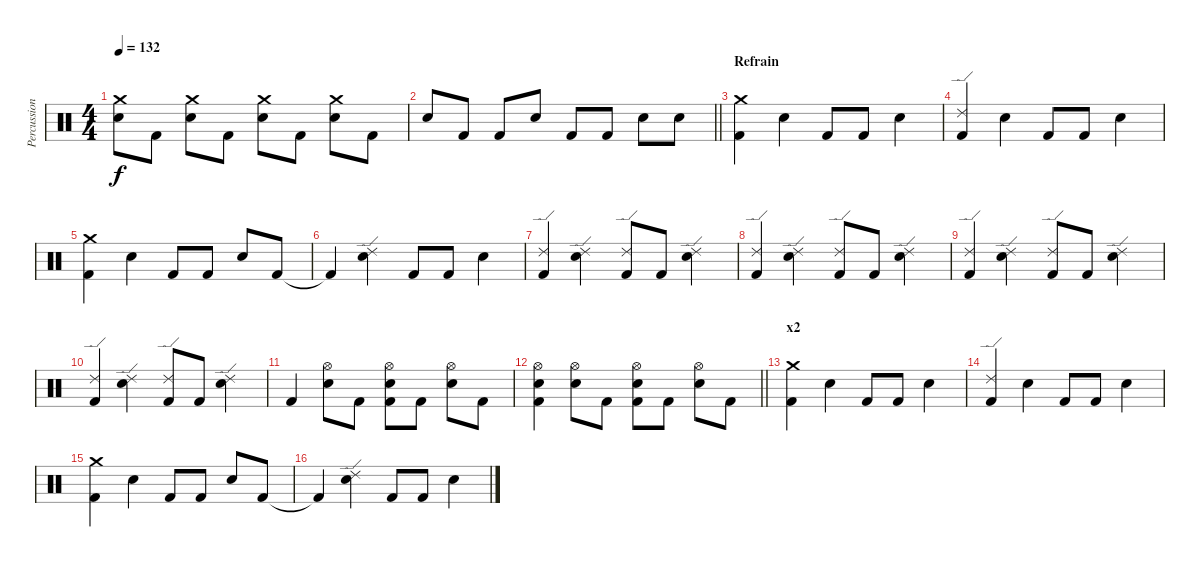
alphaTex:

\track ("Percussions" "Percussion") {instrument percussion}
\staff {score}
\articulation defaults
\ts (4 4)
\tempo 132
\clef neutral
\ks c
("Electric Snare (hit)" "Crash medium (hit)").8{dy f} "Kick (hit) 2".8 ("Electric Snare (hit)" "Crash medium (hit)").8 "Kick (hit) 2".8 ("Electric Snare (hit)" "Crash medium (hit)").8 "Kick (hit) 2".8 ("Electric Snare (hit)" "Crash medium (hit)").8 "Kick (hit) 2".8 |
\barLineRight lightlight "Electric Snare (hit)".8 "Kick (hit) 2".8 "Kick (hit) 2".8 "Electric Snare (hit)".8 "Kick (hit) 2".8 "Kick (hit) 2".8 "Electric Snare (hit)".8 "Electric Snare (hit)".8
|
\section ("" "Refrain")
("Kick (hit) 2" "Crash medium (hit)").4 "Electric Snare (hit)".4 "Kick (hit) 2".8 "Kick (hit) 2".8 "Electric Snare (hit)".4 |
("Kick (hit) 2" "Ride (edge) 2").4 "Electric Snare (hit)".4 "Kick (hit) 2".8 "Kick (hit) 2".8 "Electric Snare (hit)".4 |
("Kick (hit) 2" "Crash medium (hit)").4 "Electric Snare (hit)".4 "Kick (hit) 2".8 "Kick (hit) 2".8 "Electric Snare (hit)".8 "Kick (hit) 2".8 |
"Kick (hit) 2"{t}.4 ("Electric Snare (hit)" "Ride (edge) 2").4 "Kick (hit) 2".8 "Kick (hit) 2".8 "Electric Snare (hit)".4 |
("Kick (hit) 2" "Ride (edge) 2").4 ("Electric Snare (hit)" "Ride (edge) 2").4 ("Kick (hit) 2" "Ride (edge) 2").8 "Kick (hit) 2".8 ("Electric Snare (hit)" "Ride (edge) 2").4 |
("Kick (hit) 2" "Ride (edge) 2").4 ("Electric Snare (hit)" "Ride (edge) 2").4 ("Kick (hit) 2" "Ride (edge) 2").8 "Kick (hit) 2".8 ("Electric Snare (hit)" "Ride (edge) 2").4 |
("Kick (hit) 2" "Ride (edge) 2").4 ("Electric Snare (hit)" "Ride (edge) 2").4 ("Kick (hit) 2" "Ride (edge) 2").8 "Kick (hit) 2".8 ("Electric Snare (hit)" "Ride (edge) 2").4 |
("Kick (hit) 2" "Ride (edge) 2").4 ("Electric Snare (hit)" "Ride (edge) 2").4 ("Kick (hit) 2" "Ride (edge) 2").8 "Kick (hit) 2".8 ("Electric Snare (hit)" "Ride (edge) 2").4 |
"Kick (hit) 2".4 ("Electric Snare (hit)" "Hi-Hat (open)").8 "Kick (hit) 2".8 ("Kick (hit) 2" "Electric Snare (hit)" "Hi-Hat (open)").8 "Kick (hit) 2".8 ("Electric Snare (hit)" "Hi-Hat (open)").8 "Kick (hit) 2".8 |
\barLineRight lightlight
("Kick (hit) 2" "Electric Snare (hit)" "Hi-Hat (open)").4 ("Electric Snare (hit)" "Hi-Hat (open)").8 "Kick (hit) 2".8 ("Kick (hit) 2" "Electric Snare (hit)" "Hi-Hat (open)").8 "Kick (hit) 2".8 ("Electric Snare (hit)" "Hi-Hat (open)").8 "Kick (hit) 2".8 |
\section ("" "x2")
("Kick (hit) 2" "Crash medium (hit)").4 "Electric Snare (hit)".4 "Kick (hit) 2".8 "Kick (hit) 2".8 "Electric Snare (hit)".4 |
("Kick (hit) 2" "Ride (edge) 2").4 "Electric Snare (hit)".4 "Kick (hit) 2".8 "Kick (hit) 2".8 "Electric Snare (hit)".4 |
("Kick (hit) 2" "Crash medium (hit)").4 "Electric Snare (hit)".4 "Kick (hit) 2".8 "Kick (hit) 2".8 "Electric Snare (hit)".8 "Kick (hit) 2".8 |
"Kick (hit) 2"{t}.4 ("Electric Snare (hit)" "Ride (edge) 2").4 "Kick (hit) 2".8 "Kick (hit) 2".8 "Electric Snare (hit)".4
